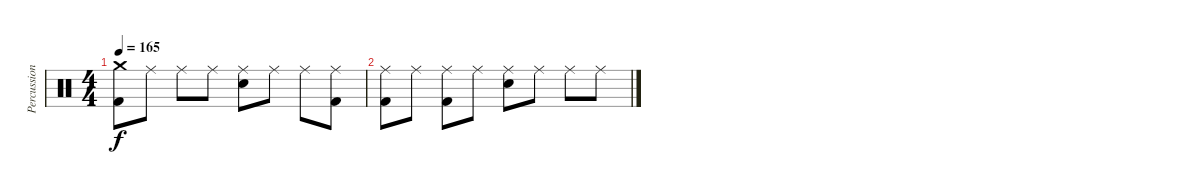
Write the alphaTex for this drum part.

\track ("Percussion" "Percussion") {instrument percussion}
\staff {score}
\articulation defaults
\ts (4 4)
\tempo 165
\clef neutral
\ks c
("Crash medium (hit)" "Kick (hit) 2").8{dy f} "Ride (middle)".8 "Ride (middle)".8 "Ride (middle)".8 ("Ride (middle)" "Electric Snare (hit)").8 "Ride (middle)".8 "Ride (middle)".8 ("Ride (middle)" "Kick (hit) 2").8 |
("Ride (middle)" "Kick (hit) 2").8 "Ride (middle)".8 ("Ride (middle)" "Kick (hit) 2").8 "Ride (middle)".8 ("Ride (middle)" "Electric Snare (hit)").8 "Ride (middle)".8 "Ride (middle)".8 "Ride (middle)".8
